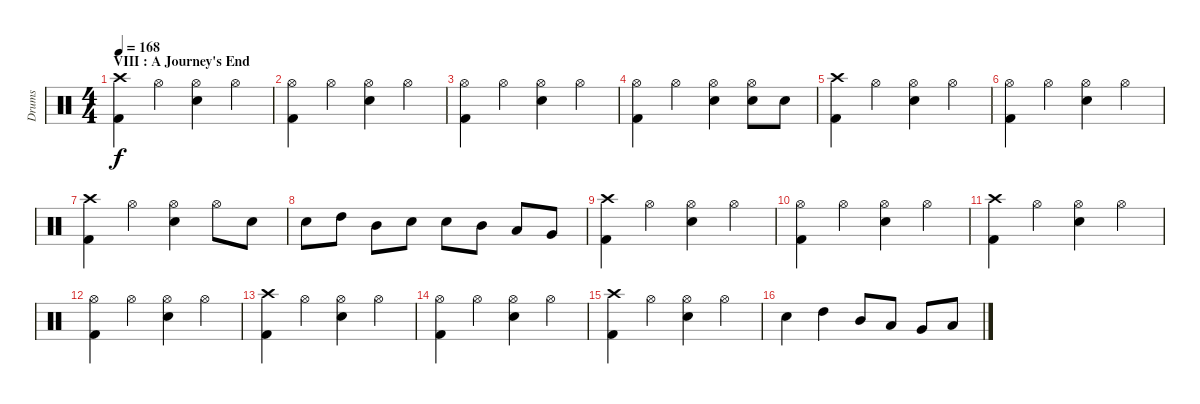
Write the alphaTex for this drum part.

\track ("Drums" "Drums") {instrument percussion}
\staff {score}
\articulation defaults
\ts (4 4)
\section ("" "VIII : A Journey's End")
\tempo 168
\clef neutral
\ks c
("Kick (hit) 2" "Crash high (hit)").4{dy f} "Hi-Hat (open)".4 ("Electric Snare (hit)" "Hi-Hat (open)").4 "Hi-Hat (open)".4 |
("Kick (hit) 2" "Hi-Hat (open)").4 "Hi-Hat (open)".4 ("Electric Snare (hit)" "Hi-Hat (open)").4 "Hi-Hat (open)".4 |
("Kick (hit) 2" "Hi-Hat (open)").4 "Hi-Hat (open)".4 ("Electric Snare (hit)" "Hi-Hat (open)").4 "Hi-Hat (open)".4 |
("Kick (hit) 2" "Hi-Hat (open)").4 "Hi-Hat (open)".4 ("Electric Snare (hit)" "Hi-Hat (open)").4 ("Electric Snare (hit)" "Hi-Hat (open)").8 "Electric Snare (hit)".8 |
("Kick (hit) 2" "Crash high (hit)").4 "Hi-Hat (open)".4 ("Electric Snare (hit)" "Hi-Hat (open)").4 "Hi-Hat (open)".4 |
("Kick (hit) 2" "Hi-Hat (open)").4 "Hi-Hat (open)".4 ("Electric Snare (hit)" "Hi-Hat (open)").4 "Hi-Hat (open)".4 |
("Kick (hit) 2" "Crash high (hit)").4 "Hi-Hat (open)".4 ("Electric Snare (hit)" "Hi-Hat (open)").4 "Hi-Hat (open)".8 "Electric Snare (hit)".8 |
"Electric Snare (hit)".8 "High Tom (hit)".8 "Mid Tom (hit)".8 "Electric Snare (hit)".8 "Electric Snare (hit)".8 "Mid Tom (hit)".8 "Low Tom (hit)".8 "Very Low Tom (hit)".8 |
\section ("" "")
("Kick (hit) 2" "Crash high (hit)").4 "Hi-Hat (open)".4 ("Electric Snare (hit)" "Hi-Hat (open)").4 "Hi-Hat (open)".4 |
("Kick (hit) 2" "Hi-Hat (open)").4 "Hi-Hat (open)".4 ("Electric Snare (hit)" "Hi-Hat (open)").4 "Hi-Hat (open)".4 |
("Kick (hit) 2" "Crash high (hit)").4 "Hi-Hat (open)".4 ("Electric Snare (hit)" "Hi-Hat (open)").4 "Hi-Hat (open)".4 |
("Kick (hit) 2" "Hi-Hat (open)").4 "Hi-Hat (open)".4 ("Electric Snare (hit)" "Hi-Hat (open)").4 "Hi-Hat (open)".4 |
("Kick (hit) 2" "Crash high (hit)").4 "Hi-Hat (open)".4 ("Electric Snare (hit)" "Hi-Hat (open)").4 "Hi-Hat (open)".4 |
("Kick (hit) 2" "Hi-Hat (open)").4 "Hi-Hat (open)".4 ("Electric Snare (hit)" "Hi-Hat (open)").4 "Hi-Hat (open)".4 |
("Kick (hit) 2" "Crash high (hit)").4 "Hi-Hat (open)".4 ("Electric Snare (hit)" "Hi-Hat (open)").4 "Hi-Hat (open)".4 |
"Electric Snare (hit)".4 "High Tom (hit)".4 "Mid Tom (hit)".8 "Low Tom (hit)".8 "Very Low Tom (hit)".8 "Low Floor Tom (hit)".8
